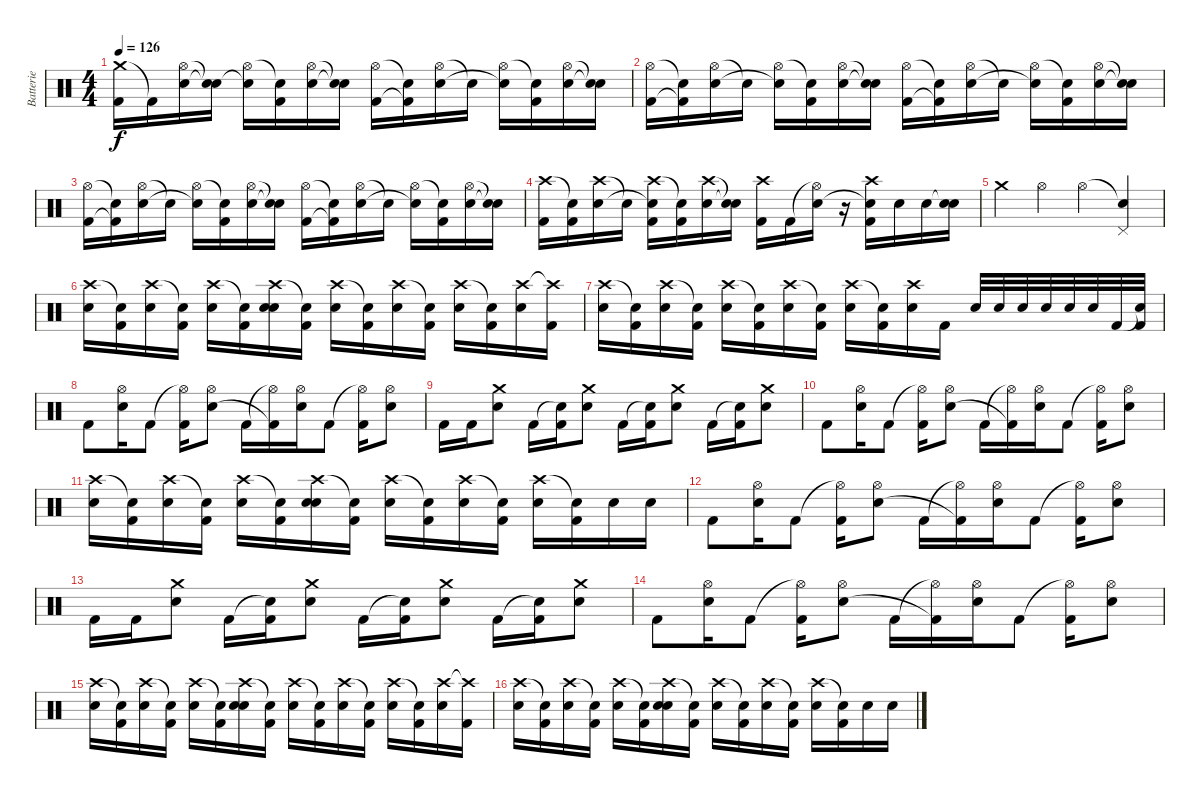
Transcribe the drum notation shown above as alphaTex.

\track ("Batterie" "Batterie") {instrument percussion}
\staff {score}
\articulation defaults
\ts (4 4)
\tempo 126
\clef neutral
\ks c
("Crash medium (hit)" "Kick (hit) 2").16{dy f} "Kick (hit) 2"{t}.16 ("Hi-Hat (open)" "Electric Snare (hit)").16 ("Snare (hit)"{t} "Snare (hit)"{t}).16 ("Hi-Hat (open)" "Electric Snare (hit)"{t}).16 ("Snare (hit)"{t} "Kick (hit) 2").16 ("Hi-Hat (open)" "Electric Snare (hit)").16 ("Snare (hit)"{t} "Electric Snare (hit)"{t}).16 ("Hi-Hat (open)" "Kick (hit) 2").16 ("Snare (hit)"{t} "Kick (hit) 2"{t}).16 ("Hi-Hat (open)" "Electric Snare (hit)").16 "Snare (hit)"{t}.16 ("Hi-Hat (open)" "Electric Snare (hit)"{t}).16 ("Snare (hit)"{t} "Kick (hit) 2").16 ("Hi-Hat (open)" "Electric Snare (hit)").16 ("Snare (hit)"{t} "Electric Snare (hit)"{t}).16 |
("Hi-Hat (open)" "Kick (hit) 2").16 ("Snare (hit)"{t} "Kick (hit) 2"{t}).16 ("Hi-Hat (open)" "Electric Snare (hit)").16 "Snare (hit)"{t}.16 ("Hi-Hat (open)" "Electric Snare (hit)"{t}).16 ("Snare (hit)"{t} "Kick (hit) 2").16 ("Hi-Hat (open)" "Electric Snare (hit)").16 ("Snare (hit)"{t} "Electric Snare (hit)"{t}).16 ("Hi-Hat (open)" "Kick (hit) 2").16 ("Snare (hit)"{t} "Kick (hit) 2"{t}).16 ("Hi-Hat (open)" "Electric Snare (hit)").16 "Snare (hit)"{t}.16 ("Hi-Hat (open)" "Electric Snare (hit)"{t}).16 ("Snare (hit)"{t} "Kick (hit) 2").16 ("Hi-Hat (open)" "Electric Snare (hit)").16 ("Snare (hit)"{t} "Electric Snare (hit)"{t}).16 |
("Hi-Hat (open)" "Kick (hit) 2").16 ("Snare (hit)"{t} "Kick (hit) 2"{t}).16 ("Hi-Hat (open)" "Electric Snare (hit)").16 "Snare (hit)"{t}.16 ("Hi-Hat (open)" "Electric Snare (hit)"{t}).16 ("Snare (hit)"{t} "Kick (hit) 2").16 ("Hi-Hat (open)" "Electric Snare (hit)").16 ("Snare (hit)"{t} "Electric Snare (hit)"{t}).16 ("Hi-Hat (open)" "Kick (hit) 2").16 ("Snare (hit)"{t} "Kick (hit) 2"{t}).16 ("Hi-Hat (open)" "Electric Snare (hit)").16 "Snare (hit)"{t}.16 ("Hi-Hat (open)" "Electric Snare (hit)"{t}).16 ("Snare (hit)"{t} "Kick (hit) 2").16 ("Hi-Hat (open)" "Electric Snare (hit)").16 ("Snare (hit)"{t} "Electric Snare (hit)"{t}).16 |
("Crash high (hit)" "Kick (hit) 2").16 ("Snare (hit)"{t} "Kick (hit) 2").16 ("Crash high (hit)" "Electric Snare (hit)").16 "Snare (hit)"{t}.16 ("Crash high (hit)" "Electric Snare (hit)"{t} "Kick (hit) 2").16 ("Snare (hit)"{t} "Kick (hit) 2").16 ("Crash high (hit)" "Electric Snare (hit)").16 ("Snare (hit)"{t} "Electric Snare (hit)"{t}).16 ("Crash high (hit)" "Kick (hit) 2").16 "Kick (hit) 2".16 ("Hi-Hat (open)"{t} "Electric Snare (hit)").16 r.16 ("Crash high (hit)" "Electric Snare (hit)"{t} "Kick (hit) 2").16 "Electric Snare (hit)".16 "Electric Snare (hit)".16 ("Snare (hit)"{t} "Electric Snare (hit)").16 |
"Crash medium (hit)".4 "Hi-Hat (open)".4 "Hi-Hat (open)".4 ("Snare (hit)"{t} "Pedal Hi-Hat (hit)").4 |
("Crash high (hit)" "Electric Snare (hit)").16 ("Snare (hit)"{t} "Kick (hit) 2").16 ("Crash high (hit)" "Electric Snare (hit)").16 ("Snare (hit)"{t} "Kick (hit) 2").16 ("Crash high (hit)" "Electric Snare (hit)").16 ("Snare (hit)"{t} "Kick (hit) 2").16 ("Crash high (hit)" "Electric Snare (hit)" "Electric Snare (hit)").16 ("Snare (hit)"{t} "Kick (hit) 2").16 ("Crash high (hit)" "Electric Snare (hit)").16 ("Snare (hit)"{t} "Kick (hit) 2").16 ("Crash high (hit)" "Electric Snare (hit)").16 ("Snare (hit)"{t} "Kick (hit) 2").16 ("Crash high (hit)" "Electric Snare (hit)").16 ("Snare (hit)"{t} "Kick (hit) 2").16 ("Crash high (hit)" "Electric Snare (hit)").16 ("Crash high (hit)"{t} "Kick (hit) 2").16 |
("Crash high (hit)" "Electric Snare (hit)").16 ("Snare (hit)"{t} "Kick (hit) 2").16 ("Crash high (hit)" "Electric Snare (hit)").16 ("Snare (hit)"{t} "Kick (hit) 2").16 ("Crash high (hit)" "Electric Snare (hit)").16 ("Snare (hit)"{t} "Kick (hit) 2").16 ("Crash high (hit)" "Electric Snare (hit)").16 ("Snare (hit)"{t} "Kick (hit) 2").16 ("Crash high (hit)" "Electric Snare (hit)").16 ("Snare (hit)"{t} "Kick (hit) 2").16 ("Crash high (hit)" "Electric Snare (hit)").16 "Kick (hit) 2".16 "Electric Snare (hit)".32 "Electric Snare (hit)".32 "Electric Snare (hit)".32 "Electric Snare (hit)".32 "Electric Snare (hit)".32 "Electric Snare (hit)".32 "Kick (hit) 2".32 ("Snare (hit)"{t} "Kick (hit) 2").32 |
"Kick (hit) 2".8 ("Hi-Hat (open)" "Electric Snare (hit)").16 "Kick (hit) 2".8 ("Hi-Hat (open)"{t} "Kick (hit) 2").16 ("Hi-Hat (open)" "Electric Snare (hit)").8 "Kick (hit) 2".16 ("Hi-Hat (open)"{t} "Kick (hit) 2"{t}).16 ("Hi-Hat (open)" "Electric Snare (hit)").16 "Kick (hit) 2".8 ("Hi-Hat (open)"{t} "Kick (hit) 2").16 ("Hi-Hat (open)" "Electric Snare (hit)").8 |
"Kick (hit) 2".16 "Kick (hit) 2".16 ("Crash medium (hit)" "Electric Snare (hit)").8 "Kick (hit) 2".16 ("Snare (hit)"{t} "Kick (hit) 2").16 ("Crash medium (hit)" "Electric Snare (hit)").8 "Kick (hit) 2".16 ("Snare (hit)"{t} "Kick (hit) 2").16 ("Crash medium (hit)" "Electric Snare (hit)").8 "Kick (hit) 2".16 ("Snare (hit)"{t} "Kick (hit) 2").16 ("Crash medium (hit)" "Electric Snare (hit)").8 |
"Kick (hit) 2".8 ("Hi-Hat (open)" "Electric Snare (hit)").16 "Kick (hit) 2".8 ("Hi-Hat (open)"{t} "Kick (hit) 2").16 ("Hi-Hat (open)" "Electric Snare (hit)").8 "Kick (hit) 2".16 ("Hi-Hat (open)"{t} "Kick (hit) 2"{t}).16 ("Hi-Hat (open)" "Electric Snare (hit)").16 "Kick (hit) 2".8 ("Hi-Hat (open)"{t} "Kick (hit) 2").16 ("Hi-Hat (open)" "Electric Snare (hit)").8 |
("Crash high (hit)" "Electric Snare (hit)").16 ("Snare (hit)"{t} "Kick (hit) 2").16 ("Crash high (hit)" "Electric Snare (hit)").16 ("Snare (hit)"{t} "Kick (hit) 2").16 ("Crash high (hit)" "Electric Snare (hit)").16 ("Snare (hit)"{t} "Kick (hit) 2").16 ("Crash high (hit)" "Electric Snare (hit)" "Electric Snare (hit)").16 ("Snare (hit)"{t} "Kick (hit) 2").16 ("Crash high (hit)" "Electric Snare (hit)").16 ("Snare (hit)"{t} "Kick (hit) 2").16 ("Crash high (hit)" "Electric Snare (hit)").16 ("Snare (hit)"{t} "Kick (hit) 2").16 ("Crash high (hit)" "Electric Snare (hit)").16 ("Snare (hit)"{t} "Kick (hit) 2").16 "Electric Snare (hit)".16 "Electric Snare (hit)".16 |
"Kick (hit) 2".8 ("Hi-Hat (open)" "Electric Snare (hit)").16 "Kick (hit) 2".8 ("Hi-Hat (open)"{t} "Kick (hit) 2").16 ("Hi-Hat (open)" "Electric Snare (hit)").8 "Kick (hit) 2".16 ("Hi-Hat (open)"{t} "Kick (hit) 2"{t}).16 ("Hi-Hat (open)" "Electric Snare (hit)").16 "Kick (hit) 2".8 ("Hi-Hat (open)"{t} "Kick (hit) 2").16 ("Hi-Hat (open)" "Electric Snare (hit)").8 |
"Kick (hit) 2".16 "Kick (hit) 2".16 ("Crash medium (hit)" "Electric Snare (hit)").8 "Kick (hit) 2".16 ("Snare (hit)"{t} "Kick (hit) 2").16 ("Crash medium (hit)" "Electric Snare (hit)").8 "Kick (hit) 2".16 ("Snare (hit)"{t} "Kick (hit) 2").16 ("Crash medium (hit)" "Electric Snare (hit)").8 "Kick (hit) 2".16 ("Snare (hit)"{t} "Kick (hit) 2").16 ("Crash medium (hit)" "Electric Snare (hit)").8 |
"Kick (hit) 2".8 ("Hi-Hat (open)" "Electric Snare (hit)").16 "Kick (hit) 2".8 ("Hi-Hat (open)"{t} "Kick (hit) 2").16 ("Hi-Hat (open)" "Electric Snare (hit)").8 "Kick (hit) 2".16 ("Hi-Hat (open)"{t} "Kick (hit) 2"{t}).16 ("Hi-Hat (open)" "Electric Snare (hit)").16 "Kick (hit) 2".8 ("Hi-Hat (open)"{t} "Kick (hit) 2").16 ("Hi-Hat (open)" "Electric Snare (hit)").8 |
("Crash high (hit)" "Electric Snare (hit)").16 ("Snare (hit)"{t} "Kick (hit) 2").16 ("Crash high (hit)" "Electric Snare (hit)").16 ("Snare (hit)"{t} "Kick (hit) 2").16 ("Crash high (hit)" "Electric Snare (hit)").16 ("Snare (hit)"{t} "Kick (hit) 2").16 ("Crash high (hit)" "Electric Snare (hit)" "Electric Snare (hit)").16 ("Snare (hit)"{t} "Kick (hit) 2").16 ("Crash high (hit)" "Electric Snare (hit)").16 ("Snare (hit)"{t} "Kick (hit) 2").16 ("Crash high (hit)" "Electric Snare (hit)").16 ("Snare (hit)"{t} "Kick (hit) 2").16 ("Crash high (hit)" "Electric Snare (hit)").16 ("Snare (hit)"{t} "Kick (hit) 2").16 ("Crash high (hit)" "Electric Snare (hit)").16 ("Crash high (hit)"{t} "Kick (hit) 2").16 |
("Crash high (hit)" "Electric Snare (hit)").16 ("Snare (hit)"{t} "Kick (hit) 2").16 ("Crash high (hit)" "Electric Snare (hit)").16 ("Snare (hit)"{t} "Kick (hit) 2").16 ("Crash high (hit)" "Electric Snare (hit)").16 ("Snare (hit)"{t} "Kick (hit) 2").16 ("Crash high (hit)" "Electric Snare (hit)" "Electric Snare (hit)").16 ("Snare (hit)"{t} "Kick (hit) 2").16 ("Crash high (hit)" "Electric Snare (hit)").16 ("Snare (hit)"{t} "Kick (hit) 2").16 ("Crash high (hit)" "Electric Snare (hit)").16 ("Snare (hit)"{t} "Kick (hit) 2").16 ("Crash high (hit)" "Electric Snare (hit)").16 ("Snare (hit)"{t} "Kick (hit) 2").16 "Electric Snare (hit)".16 "Electric Snare (hit)".16
